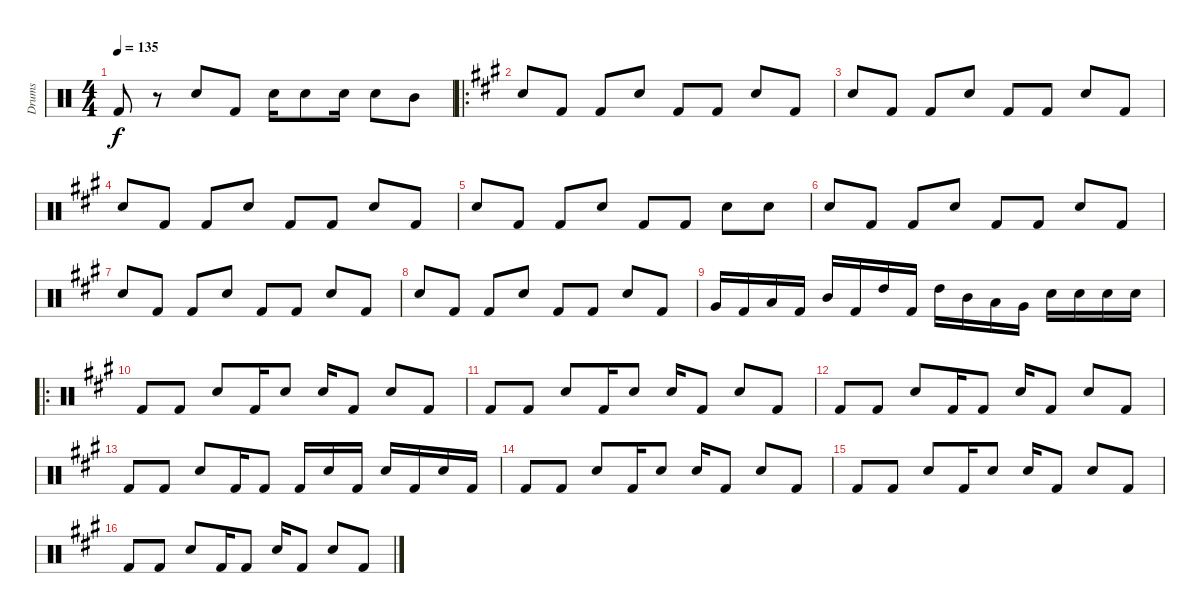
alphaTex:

\track ("Drums" "Drums") {instrument percussion}
\staff {score}
\articulation defaults
\ts (4 4)
\tempo 135
\clef neutral
\ks c "Kick (hit) 2".8{dy f}
r.8 "Snare (hit) 2".8 "Kick (hit) 2".8 "Snare (hit) 2".16 "Snare (hit) 2".8 "Snare (hit) 2".16 "Snare (hit) 2".8 "Mid Tom (hit)".8 |
\ro
\ks a "Snare (hit) 2".8 "Kick (hit) 2".8 "Kick (hit) 2".8 "Snare (hit) 2".8 "Kick (hit) 2".8 "Kick (hit) 2".8 "Snare (hit) 2".8 "Kick (hit) 2".8
|
"Snare (hit) 2".8 "Kick (hit) 2".8 "Kick (hit) 2".8 "Snare (hit) 2".8 "Kick (hit) 2".8 "Kick (hit) 2".8 "Snare (hit) 2".8 "Kick (hit) 2".8 |
"Snare (hit) 2".8 "Kick (hit) 2".8 "Kick (hit) 2".8 "Snare (hit) 2".8 "Kick (hit) 2".8 "Kick (hit) 2".8 "Snare (hit) 2".8 "Kick (hit) 2".8 |
"Snare (hit) 2".8 "Kick (hit) 2".8 "Kick (hit) 2".8 "Snare (hit) 2".8 "Kick (hit) 2".8 "Kick (hit) 2".8 "Snare (hit) 2".8 "Snare (hit) 2".8 |
"Snare (hit) 2".8 "Kick (hit) 2".8 "Kick (hit) 2".8 "Snare (hit) 2".8 "Kick (hit) 2".8 "Kick (hit) 2".8 "Snare (hit) 2".8 "Kick (hit) 2".8 |
"Snare (hit) 2".8 "Kick (hit) 2".8 "Kick (hit) 2".8 "Snare (hit) 2".8 "Kick (hit) 2".8 "Kick (hit) 2".8 "Snare (hit) 2".8 "Kick (hit) 2".8 |
"Snare (hit) 2".8 "Kick (hit) 2".8 "Kick (hit) 2".8 "Snare (hit) 2".8 "Kick (hit) 2".8 "Kick (hit) 2".8 "Snare (hit) 2".8 "Kick (hit) 2".8 |
"Very Low Tom (hit)".16 "Kick (hit) 2".16 "Low Tom (hit)".16 "Kick (hit) 2".16 "Mid Tom (hit)".16 "Kick (hit) 2".16 "High Tom (hit)".16 "Kick (hit) 2".16 "High Tom (hit)".16 "Mid Tom (hit)".16 "Low Tom (hit)".16 "Very Low Tom (hit)".16 "Snare (hit) 2".16 "Snare (hit) 2".16 "Snare (hit) 2".16 "Snare (hit) 2".16 |
\ro "Kick (hit) 2".8 "Kick (hit) 2".8 "Snare (hit) 2".8 "Kick (hit) 2".16 "Snare (hit) 2".8 "Snare (hit) 2".16 "Kick (hit) 2".8 "Snare (hit) 2".8 "Kick (hit) 2".8
|
"Kick (hit) 2".8 "Kick (hit) 2".8 "Snare (hit) 2".8 "Kick (hit) 2".16 "Snare (hit) 2".8 "Snare (hit) 2".16 "Kick (hit) 2".8 "Snare (hit) 2".8 "Kick (hit) 2".8 |
"Kick (hit) 2".8 "Kick (hit) 2".8 "Snare (hit) 2".8 "Kick (hit) 2".16 "Kick (hit) 2".8 "Snare (hit) 2".16 "Kick (hit) 2".8 "Snare (hit) 2".8 "Kick (hit) 2".8 |
"Kick (hit) 2".8 "Kick (hit) 2".8 "Snare (hit) 2".8 "Kick (hit) 2".16 "Kick (hit) 2".8 "Kick (hit) 2".16 "Snare (hit) 2".16 "Kick (hit) 2".16 "Snare (hit) 2".16 "Kick (hit) 2".16 "Snare (hit) 2".16 "Kick (hit) 2".16 |
"Kick (hit) 2".8 "Kick (hit) 2".8 "Snare (hit) 2".8 "Kick (hit) 2".16 "Snare (hit) 2".8 "Snare (hit) 2".16 "Kick (hit) 2".8 "Snare (hit) 2".8 "Kick (hit) 2".8 |
"Kick (hit) 2".8 "Kick (hit) 2".8 "Snare (hit) 2".8 "Kick (hit) 2".16 "Snare (hit) 2".8 "Snare (hit) 2".16 "Kick (hit) 2".8 "Snare (hit) 2".8 "Kick (hit) 2".8 |
"Kick (hit) 2".8 "Kick (hit) 2".8 "Snare (hit) 2".8 "Kick (hit) 2".16 "Kick (hit) 2".8 "Snare (hit) 2".16 "Kick (hit) 2".8 "Snare (hit) 2".8 "Kick (hit) 2".8
